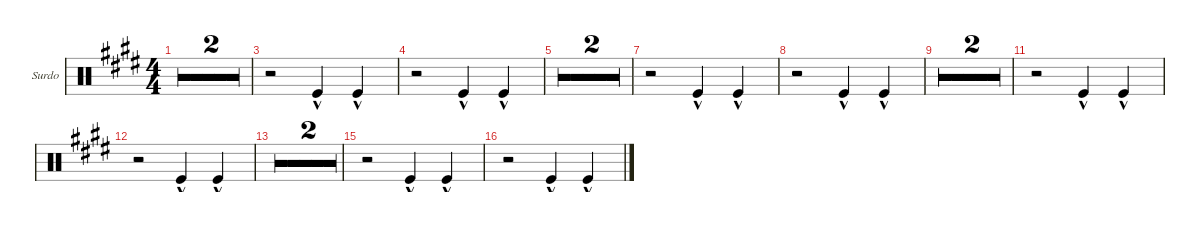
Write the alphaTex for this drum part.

\defaultSystemsLayout 4
\hideDynamics
\bracketExtendMode groupsimilarinstruments
\firstSystemTrackNameOrientation horizontal
\otherSystemsTrackNameOrientation horizontal
\track ("Surdo" "Surdo") {multiBarRest instrument percussion}
\staff {score}
\articulation defaults
\ts (4 4)
\tempo
180.318
\accidentals auto
\clef neutral
\ottava regular
\simile none
\ks e
r.1{dy fff} |
\barLineRight lightlight
r.1 |
r.2 "Kick (hit)"{hac}.4 "Kick (hit)"{hac}.4 |
r.2 "Kick (hit)"{hac}.4 "Kick (hit)"{hac}.4 |
r.1 |
r.1 |
r.2 "Kick (hit)"{hac}.4 "Kick (hit)"{hac}.4 |
r.2 "Kick (hit)"{hac}.4 "Kick (hit)"{hac}.4 |
r.1 |
r.1 |
r.2 "Kick (hit)"{hac}.4 "Kick (hit)"{hac}.4 |
r.2 "Kick (hit)"{hac}.4 "Kick (hit)"{hac}.4 |
r.1 |
r.1 |
r.2 "Kick (hit)"{hac}.4 "Kick (hit)"{hac}.4 |
r.2 "Kick (hit)"{hac}.4 "Kick (hit)"{hac}.4
